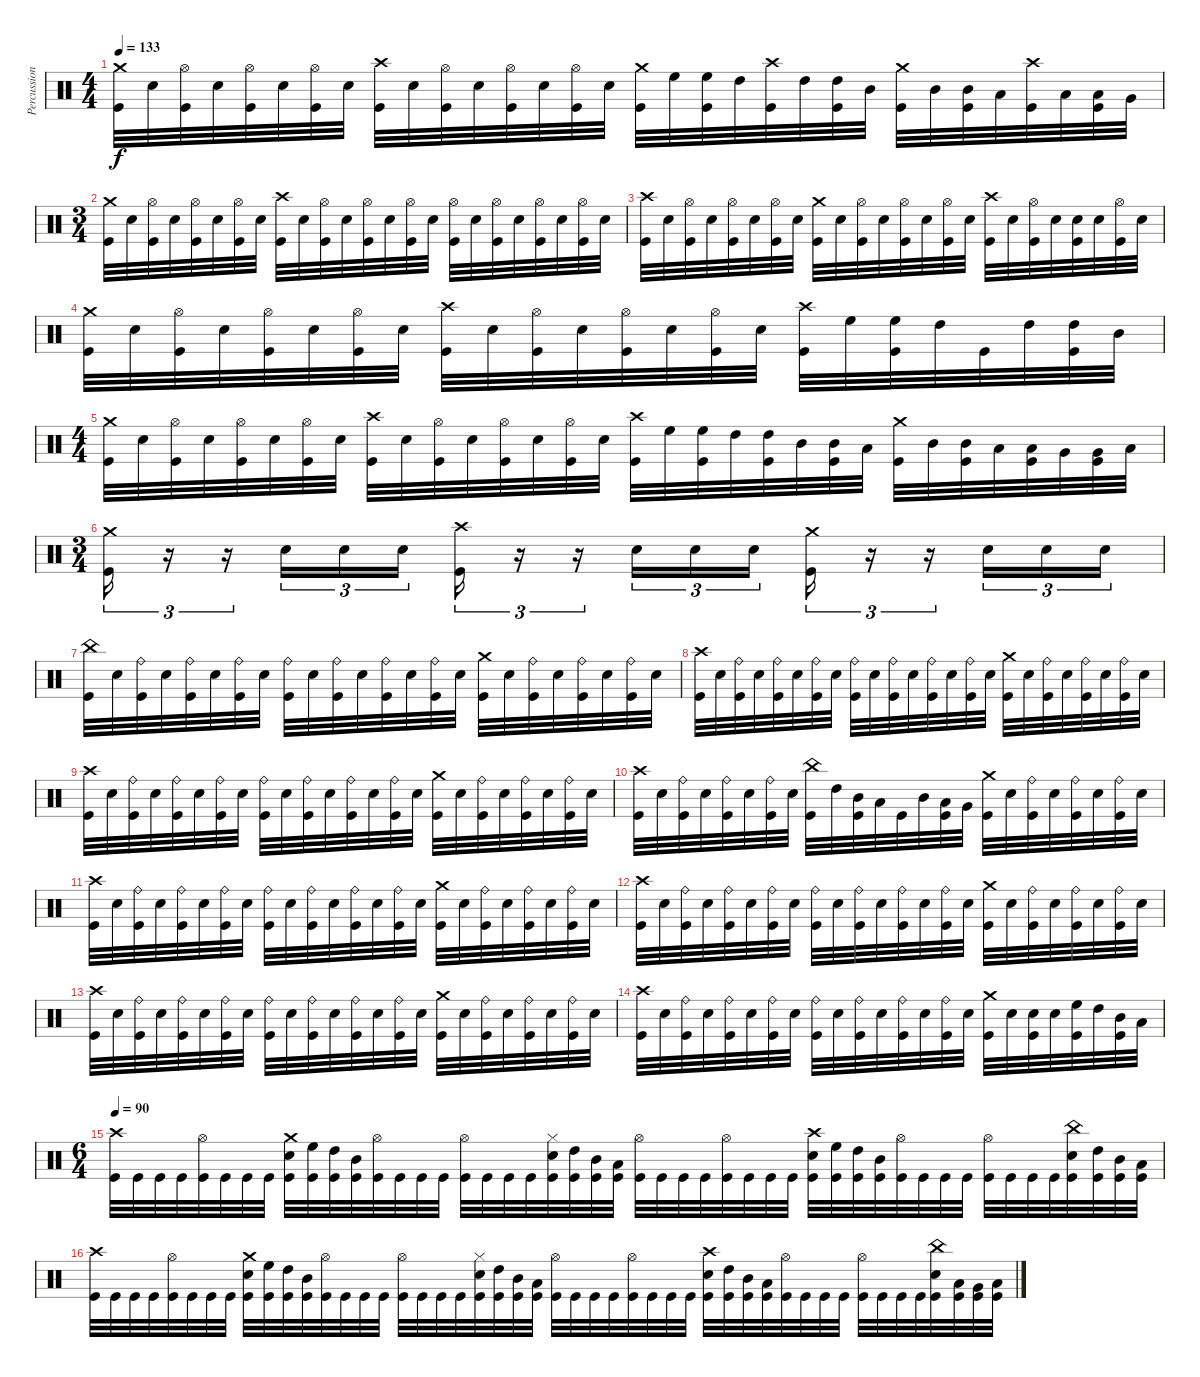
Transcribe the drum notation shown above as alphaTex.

\track ("Percussion" "Percussion") {instrument percussion}
\staff {score}
\articulation defaults
\ts (4 4)
\tempo 133
\clef neutral
\ks c
("Crash medium (hit)" "Kick (hit)").32{dy f} "Snare (hit) 2".32 ("Hi-Hat (open)" "Kick (hit)").32 "Snare (hit) 2".32 ("Hi-Hat (open)" "Kick (hit)").32 "Snare (hit) 2".32 ("Hi-Hat (open)" "Kick (hit)").32 "Snare (hit) 2".32 ("Crash high (hit)" "Kick (hit)").32 "Snare (hit) 2".32 ("Hi-Hat (open)" "Kick (hit)").32 "Snare (hit) 2".32 ("Hi-Hat (open)" "Kick (hit)").32 "Snare (hit) 2".32 ("Hi-Hat (open)" "Kick (hit)").32 "Snare (hit) 2".32 ("Crash medium (hit)" "Kick (hit)").32 "High Floor Tom (hit)".32 ("High Floor Tom (hit)" "Kick (hit)").32 "High Tom (hit)".32 ("Crash high (hit)" "Kick (hit)").32 "High Tom (hit)".32 ("High Tom (hit)" "Kick (hit)").32 "Mid Tom (hit)".32 ("Crash medium (hit)" "Kick (hit)").32 "Mid Tom (hit)".32 ("Mid Tom (hit)" "Kick (hit)").32 "Low Tom (hit)".32 ("Crash high (hit)" "Kick (hit)").32 "Low Tom (hit)".32 ("Low Tom (hit)" "Kick (hit)").32 "Very Low Tom (hit)".32 |
\ts (3 4)
("Crash medium (hit)" "Kick (hit)").32 "Snare (hit) 2".32 ("Hi-Hat (open)" "Kick (hit)").32 "Snare (hit) 2".32 ("Hi-Hat (open)" "Kick (hit)").32 "Snare (hit) 2".32 ("Hi-Hat (open)" "Kick (hit)").32 "Snare (hit) 2".32 ("Crash high (hit)" "Kick (hit)").32 "Snare (hit) 2".32 ("Hi-Hat (open)" "Kick (hit)").32 "Snare (hit) 2".32 ("Hi-Hat (open)" "Kick (hit)").32 "Snare (hit) 2".32 ("Hi-Hat (open)" "Kick (hit)").32 "Snare (hit) 2".32 ("Hi-Hat (open)" "Kick (hit)").32 "Snare (hit) 2".32 ("Hi-Hat (open)" "Kick (hit)").32 "Snare (hit) 2".32 ("Hi-Hat (open)" "Kick (hit)").32 "Snare (hit) 2".32 ("Hi-Hat (open)" "Kick (hit)").32 "Snare (hit) 2".32 |
("Crash high (hit)" "Kick (hit)").32 "Snare (hit) 2".32 ("Hi-Hat (open)" "Kick (hit)").32 "Snare (hit) 2".32 ("Hi-Hat (open)" "Kick (hit)").32 "Snare (hit) 2".32 ("Hi-Hat (open)" "Kick (hit)").32 "Snare (hit) 2".32 ("Crash medium (hit)" "Kick (hit)").32 "Snare (hit) 2".32 ("Hi-Hat (open)" "Kick (hit)").32 "Snare (hit) 2".32 ("Hi-Hat (open)" "Kick (hit)").32 "Snare (hit) 2".32 ("Hi-Hat (open)" "Kick (hit)").32 "Snare (hit) 2".32 ("Crash high (hit)" "Kick (hit)").32 "Snare (hit) 2".32 ("Hi-Hat (open)" "Kick (hit)").32 "Snare (hit) 2".32 ("Snare (hit) 2" "Kick (hit)").32 "Snare (hit) 2".32 ("Hi-Hat (open)" "Kick (hit)").32 "Snare (hit) 2".32 |
("Crash medium (hit)" "Kick (hit)").32 "Snare (hit) 2".32 ("Hi-Hat (open)" "Kick (hit)").32 "Snare (hit) 2".32 ("Hi-Hat (open)" "Kick (hit)").32 "Snare (hit) 2".32 ("Hi-Hat (open)" "Kick (hit)").32 "Snare (hit) 2".32 ("Crash high (hit)" "Kick (hit)").32 "Snare (hit) 2".32 ("Hi-Hat (open)" "Kick (hit)").32 "Snare (hit) 2".32 ("Hi-Hat (open)" "Kick (hit)").32 "Snare (hit) 2".32 ("Hi-Hat (open)" "Kick (hit)").32 "Snare (hit) 2".32 ("Crash high (hit)" "Kick (hit)").32 "High Floor Tom (hit)".32 ("High Floor Tom (hit)" "Kick (hit)").32 "High Tom (hit)".32 "Kick (hit)".32 "High Tom (hit)".32 ("High Tom (hit)" "Kick (hit)").32 "Mid Tom (hit)".32 |
\ts (4 4)
("Crash medium (hit)" "Kick (hit)").32 "Snare (hit) 2".32 ("Hi-Hat (open)" "Kick (hit)").32 "Snare (hit) 2".32 ("Hi-Hat (open)" "Kick (hit)").32 "Snare (hit) 2".32 ("Hi-Hat (open)" "Kick (hit)").32 "Snare (hit) 2".32 ("Crash high (hit)" "Kick (hit)").32 "Snare (hit) 2".32 ("Hi-Hat (open)" "Kick (hit)").32 "Snare (hit) 2".32 ("Hi-Hat (open)" "Kick (hit)").32 "Snare (hit) 2".32 ("Hi-Hat (open)" "Kick (hit)").32 "Snare (hit) 2".32 ("Crash high (hit)" "Kick (hit)").32 "High Floor Tom (hit)".32 ("High Floor Tom (hit)" "Kick (hit)").32 "High Tom (hit)".32 ("High Tom (hit)" "Kick (hit)").32 "Mid Tom (hit)".32 ("Mid Tom (hit)" "Kick (hit)").32 "Low Tom (hit)".32 ("Crash medium (hit)" "Kick (hit)").32 "Mid Tom (hit)".32 ("Mid Tom (hit)" "Kick (hit)").32 "Low Tom (hit)".32 ("Low Tom (hit)" "Kick (hit)").32 "Very Low Tom (hit)".32 ("Very Low Tom (hit)" "Kick (hit)").32 "Low Floor Tom (hit)".32 |
\ts (3 4)
("Crash medium (hit)" "Kick (hit)").16{tu (3 2)} r.16{tu (3 2)} r.16{tu (3 2)} "Snare (hit) 2".16{tu (3 2)} "Snare (hit) 2".16{tu (3 2)} "Snare (hit) 2".16{tu (3 2)} ("Crash high (hit)" "Kick (hit)").16{tu (3 2)} r.16{tu (3 2)} r.16{tu (3 2)} "Snare (hit) 2".16{tu (3 2)} "Snare (hit) 2".16{tu (3 2)} "Snare (hit) 2".16{tu (3 2)} ("Crash medium (hit)" "Kick (hit)").16{tu (3 2)} r.16{tu (3 2)} r.16{tu (3 2)} "Snare (hit) 2".16{tu (3 2)} "Snare (hit) 2".16{tu (3 2)} "Snare (hit) 2".16{tu (3 2)} |
("China (hit)" "Kick (hit)").32 "Snare (hit) 2".32 ("Ride (bell)" "Kick (hit)").32 "Snare (hit) 2".32 ("Ride (bell)" "Kick (hit)").32 "Snare (hit) 2".32 ("Ride (bell)" "Kick (hit)").32 "Snare (hit) 2".32 ("Ride (bell)" "Kick (hit)").32 "Snare (hit) 2".32 ("Ride (bell)" "Kick (hit)").32 "Snare (hit) 2".32 ("Ride (bell)" "Kick (hit)").32 "Snare (hit) 2".32 ("Ride (bell)" "Kick (hit)").32 "Snare (hit) 2".32 ("Crash medium (hit)" "Kick (hit)").32 "Snare (hit) 2".32 ("Ride (bell)" "Kick (hit)").32 "Snare (hit) 2".32 ("Ride (bell)" "Kick (hit)").32 "Snare (hit) 2".32 ("Ride (bell)" "Kick (hit)").32 "Snare (hit) 2".32 |
("Crash high (hit)" "Kick (hit)").32 "Snare (hit) 2".32 ("Ride (bell)" "Kick (hit)").32 "Snare (hit) 2".32 ("Ride (bell)" "Kick (hit)").32 "Snare (hit) 2".32 ("Ride (bell)" "Kick (hit)").32 "Snare (hit) 2".32 ("Ride (bell)" "Kick (hit)").32 "Snare (hit) 2".32 ("Ride (bell)" "Kick (hit)").32 "Snare (hit) 2".32 ("Ride (bell)" "Kick (hit)").32 "Snare (hit) 2".32 ("Ride (bell)" "Kick (hit)").32 "Snare (hit) 2".32 ("Crash medium (hit)" "Kick (hit)").32 "Snare (hit) 2".32 ("Ride (bell)" "Kick (hit)").32 "Snare (hit) 2".32 ("Ride (bell)" "Kick (hit)").32 "Snare (hit) 2".32 ("Ride (bell)" "Kick (hit)").32 "Snare (hit) 2".32 |
("Crash high (hit)" "Kick (hit)").32 "Snare (hit) 2".32 ("Ride (bell)" "Kick (hit)").32 "Snare (hit) 2".32 ("Ride (bell)" "Kick (hit)").32 "Snare (hit) 2".32 ("Ride (bell)" "Kick (hit)").32 "Snare (hit) 2".32 ("Ride (bell)" "Kick (hit)").32 "Snare (hit) 2".32 ("Ride (bell)" "Kick (hit)").32 "Snare (hit) 2".32 ("Ride (bell)" "Kick (hit)").32 "Snare (hit) 2".32 ("Ride (bell)" "Kick (hit)").32 "Snare (hit) 2".32 ("Crash medium (hit)" "Kick (hit)").32 "Snare (hit) 2".32 ("Ride (bell)" "Kick (hit)").32 "Snare (hit) 2".32 ("Ride (bell)" "Kick (hit)").32 "Snare (hit) 2".32 ("Ride (bell)" "Kick (hit)").32 "Snare (hit) 2".32 |
("Crash high (hit)" "Kick (hit)").32 "Snare (hit) 2".32 ("Ride (bell)" "Kick (hit)").32 "Snare (hit) 2".32 ("Ride (bell)" "Kick (hit)").32 "Snare (hit) 2".32 ("Ride (bell)" "Kick (hit)").32 "Snare (hit) 2".32 ("China (hit)" "Kick (hit)").32 "High Tom (hit)".32 ("Mid Tom (hit)" "Kick (hit)").32 "Low Tom (hit)".32 "Kick (hit)".32 "Mid Tom (hit)".32 ("Low Tom (hit)" "Kick (hit)").32 "Very Low Tom (hit)".32 ("Crash medium (hit)" "Kick (hit)").32 "Snare (hit) 2".32 ("Ride (bell)" "Kick (hit)").32 "Snare (hit) 2".32 ("Ride (bell)" "Kick (hit)").32 "Snare (hit) 2".32 ("Ride (bell)" "Kick (hit)").32 "Snare (hit) 2".32 |
("Crash high (hit)" "Kick (hit)").32 "Snare (hit) 2".32 ("Ride (bell)" "Kick (hit)").32 "Snare (hit) 2".32 ("Ride (bell)" "Kick (hit)").32 "Snare (hit) 2".32 ("Ride (bell)" "Kick (hit)").32 "Snare (hit) 2".32 ("Ride (bell)" "Kick (hit)").32 "Snare (hit) 2".32 ("Ride (bell)" "Kick (hit)").32 "Snare (hit) 2".32 ("Ride (bell)" "Kick (hit)").32 "Snare (hit) 2".32 ("Ride (bell)" "Kick (hit)").32 "Snare (hit) 2".32 ("Crash medium (hit)" "Kick (hit)").32 "Snare (hit) 2".32 ("Ride (bell)" "Kick (hit)").32 "Snare (hit) 2".32 ("Ride (bell)" "Kick (hit)").32 "Snare (hit) 2".32 ("Ride (bell)" "Kick (hit)").32 "Snare (hit) 2".32 |
("Crash high (hit)" "Kick (hit)").32 "Snare (hit) 2".32 ("Ride (bell)" "Kick (hit)").32 "Snare (hit) 2".32 ("Ride (bell)" "Kick (hit)").32 "Snare (hit) 2".32 ("Ride (bell)" "Kick (hit)").32 "Snare (hit) 2".32 ("Ride (bell)" "Kick (hit)").32 "Snare (hit) 2".32 ("Ride (bell)" "Kick (hit)").32 "Snare (hit) 2".32 ("Ride (bell)" "Kick (hit)").32 "Snare (hit) 2".32 ("Ride (bell)" "Kick (hit)").32 "Snare (hit) 2".32 ("Crash medium (hit)" "Kick (hit)").32 "Snare (hit) 2".32 ("Ride (bell)" "Kick (hit)").32 "Snare (hit) 2".32 ("Ride (bell)" "Kick (hit)").32 "Snare (hit) 2".32 ("Ride (bell)" "Kick (hit)").32 "Snare (hit) 2".32 |
("Crash high (hit)" "Kick (hit)").32 "Snare (hit) 2".32 ("Ride (bell)" "Kick (hit)").32 "Snare (hit) 2".32 ("Ride (bell)" "Kick (hit)").32 "Snare (hit) 2".32 ("Ride (bell)" "Kick (hit)").32 "Snare (hit) 2".32 ("Ride (bell)" "Kick (hit)").32 "Snare (hit) 2".32 ("Ride (bell)" "Kick (hit)").32 "Snare (hit) 2".32 ("Ride (bell)" "Kick (hit)").32 "Snare (hit) 2".32 ("Ride (bell)" "Kick (hit)").32 "Snare (hit) 2".32 ("Crash medium (hit)" "Kick (hit)").32 "Snare (hit) 2".32 ("Ride (bell)" "Kick (hit)").32 "Snare (hit) 2".32 ("Ride (bell)" "Kick (hit)").32 "Snare (hit) 2".32 ("Ride (bell)" "Kick (hit)").32 "Snare (hit) 2".32 |
("Crash high (hit)" "Kick (hit)").32 "Snare (hit) 2".32 ("Ride (bell)" "Kick (hit)").32 "Snare (hit) 2".32 ("Ride (bell)" "Kick (hit)").32 "Snare (hit) 2".32 ("Ride (bell)" "Kick (hit)").32 "Snare (hit) 2".32 ("Ride (bell)" "Kick (hit)").32 "Snare (hit) 2".32 ("Ride (bell)" "Kick (hit)").32 "Snare (hit) 2".32 ("Ride (bell)" "Kick (hit)").32 "Snare (hit) 2".32 ("Ride (bell)" "Kick (hit)").32 "Snare (hit) 2".32 ("Crash medium (hit)" "Kick (hit)").32 "Snare (hit) 2".32 ("Snare (hit) 2" "Kick (hit)").32 "Snare (hit) 2".32 ("High Floor Tom (hit)" "Kick (hit)").32 "High Tom (hit)".32 ("Mid Tom (hit)" "Kick (hit)").32 "Low Tom (hit)".32 |
\ts (6 4)
\tempo 90
("Crash high (hit)" "Kick (hit)").32 "Kick (hit)".32 "Kick (hit)".32 "Kick (hit)".32 ("Hi-Hat (open)" "Kick (hit)").32 "Kick (hit)".32 "Kick (hit)".32 "Kick (hit)".32 ("Crash medium (hit)" "Snare (hit) 2" "Kick (hit)").32 ("High Floor Tom (hit)" "Kick (hit)").32 ("High Tom (hit)" "Kick (hit)").32 ("Mid Tom (hit)" "Kick (hit)").32 ("Hi-Hat (open)" "Kick (hit)").32 "Kick (hit)".32 "Kick (hit)".32 "Kick (hit)".32 ("Hi-Hat (open)" "Kick (hit)").32 "Kick (hit)".32 "Kick (hit)".32 "Kick (hit)".32 ("Hi-Hat (closed)" "Snare (hit) 2" "Kick (hit)").32 ("High Tom (hit)" "Kick (hit)").32 ("Mid Tom (hit)" "Kick (hit)").32 ("Low Tom (hit)" "Kick (hit)").32 ("Hi-Hat (open)" "Kick (hit)").32 "Kick (hit)".32 "Kick (hit)".32 "Kick (hit)".32 ("Hi-Hat (open)" "Kick (hit)").32 "Kick (hit)".32 "Kick (hit)".32 "Kick (hit)".32 ("Crash high (hit)" "Snare (hit) 2" "Kick (hit)").32 ("High Floor Tom (hit)" "Kick (hit)").32 ("High Tom (hit)" "Kick (hit)").32 ("Mid Tom (hit)" "Kick (hit)").32 ("Hi-Hat (open)" "Kick (hit)").32 "Kick (hit)".32 "Kick (hit)".32 "Kick (hit)".32 ("Hi-Hat (open)" "Kick (hit)").32 "Kick (hit)".32 "Kick (hit)".32 "Kick (hit)".32 ("China (hit)" "Snare (hit) 2" "Kick (hit)").32 ("High Tom (hit)" "Kick (hit)").32 ("Mid Tom (hit)" "Kick (hit)").32 ("Low Tom (hit)" "Kick (hit)").32 |
("Crash high (hit)" "Kick (hit)").32 "Kick (hit)".32 "Kick (hit)".32 "Kick (hit)".32 ("Hi-Hat (open)" "Kick (hit)").32 "Kick (hit)".32 "Kick (hit)".32 "Kick (hit)".32 ("Crash medium (hit)" "Snare (hit) 2" "Kick (hit)").32 ("High Floor Tom (hit)" "Kick (hit)").32 ("High Tom (hit)" "Kick (hit)").32 ("Mid Tom (hit)" "Kick (hit)").32 ("Hi-Hat (open)" "Kick (hit)").32 "Kick (hit)".32 "Kick (hit)".32 "Kick (hit)".32 ("Hi-Hat (open)" "Kick (hit)").32 "Kick (hit)".32 "Kick (hit)".32 "Kick (hit)".32 ("Hi-Hat (closed)" "Snare (hit) 2" "Kick (hit)").32 ("High Tom (hit)" "Kick (hit)").32 ("Mid Tom (hit)" "Kick (hit)").32 ("Low Tom (hit)" "Kick (hit)").32 ("Hi-Hat (open)" "Kick (hit)").32 "Kick (hit)".32 "Kick (hit)".32 "Kick (hit)".32 ("Hi-Hat (open)" "Kick (hit)").32 "Kick (hit)".32 "Kick (hit)".32 "Kick (hit)".32 ("Crash high (hit)" "Snare (hit) 2" "Kick (hit)").32 ("High Tom (hit)" "Kick (hit)").32 ("Mid Tom (hit)" "Kick (hit)").32 ("Low Tom (hit)" "Kick (hit)").32 ("Hi-Hat (open)" "Kick (hit)").32 "Kick (hit)".32 "Kick (hit)".32 "Kick (hit)".32 ("Hi-Hat (open)" "Kick (hit)").32 "Kick (hit)".32 "Kick (hit)".32 "Kick (hit)".32 ("China (hit)" "Snare (hit) 2" "Kick (hit)").32 ("Low Tom (hit)" "Kick (hit)").32 ("Very Low Tom (hit)" "Kick (hit)").32 ("Low Floor Tom (hit)" "Kick (hit)").32
